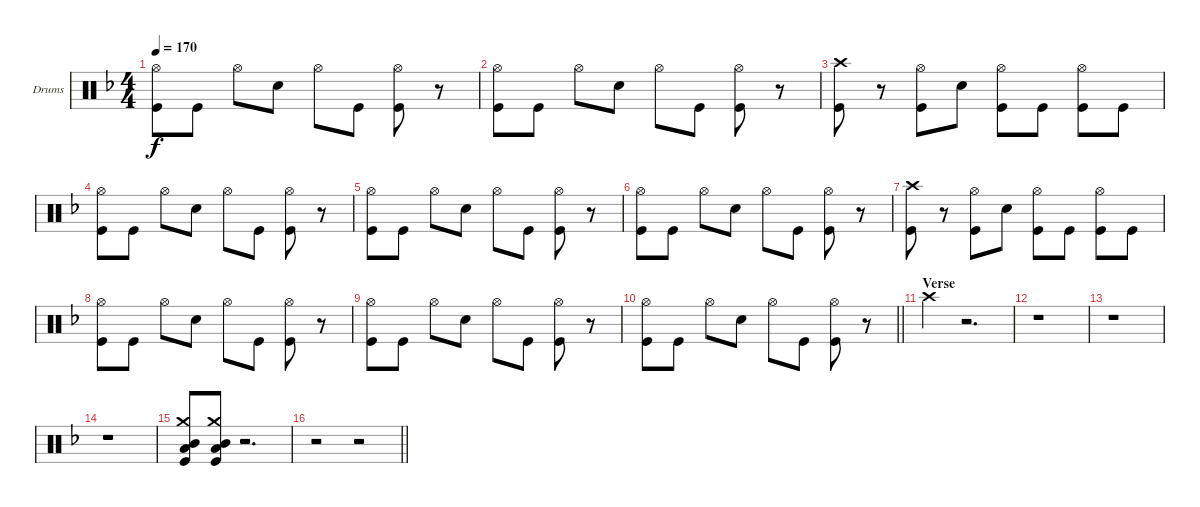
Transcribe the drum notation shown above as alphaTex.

\bracketExtendMode groupsimilarinstruments
\firstSystemTrackNameOrientation horizontal
\otherSystemsTrackNameOrientation horizontal
\track ("Drumkit" "Drums") {instrument percussion}
\staff {score}
\articulation defaults
\ts (4 4)
\tempo 170
\clef neutral
\scale
0.333333
\ks dminor
("Hi-Hat (open)" "Kick (hit)").8{dy f} "Kick (hit)".8 "Hi-Hat (open)".8 "Snare (hit) 2".8 "Hi-Hat (open)".8 "Kick (hit)".8 ("Hi-Hat (open)" "Kick (hit)").8 r.8 |
\scale
0.333333 ("Hi-Hat (open)" "Kick (hit)").8 "Kick (hit)".8 "Hi-Hat (open)".8 "Snare (hit) 2".8 "Hi-Hat (open)".8 "Kick (hit)".8 ("Hi-Hat (open)" "Kick (hit)").8 r.8 |
\scale
0.333333 ("Crash high (hit)" "Kick (hit)").8 r.8 ("Hi-Hat (open)" "Kick (hit)").8 "Snare (hit) 2".8 ("Hi-Hat (open)" "Kick (hit)").8 "Kick (hit)".8 ("Hi-Hat (open)" "Kick (hit)").8 "Kick (hit)".8 |
\scale
0.333333 ("Hi-Hat (open)" "Kick (hit)").8 "Kick (hit)".8 "Hi-Hat (open)".8 "Snare (hit) 2".8 "Hi-Hat (open)".8 "Kick (hit)".8 ("Hi-Hat (open)" "Kick (hit)").8 r.8 |
\scale
0.333333 ("Hi-Hat (open)" "Kick (hit)").8 "Kick (hit)".8 "Hi-Hat (open)".8 "Snare (hit) 2".8 "Hi-Hat (open)".8 "Kick (hit)".8 ("Hi-Hat (open)" "Kick (hit)").8 r.8 |
\scale
0.333333 ("Hi-Hat (open)" "Kick (hit)").8 "Kick (hit)".8 "Hi-Hat (open)".8 "Snare (hit) 2".8 "Hi-Hat (open)".8 "Kick (hit)".8 ("Hi-Hat (open)" "Kick (hit)").8 r.8 |
\scale
0.333333 ("Crash high (hit)" "Kick (hit)").8 r.8 ("Hi-Hat (open)" "Kick (hit)").8 "Snare (hit) 2".8 ("Hi-Hat (open)" "Kick (hit)").8 "Kick (hit)".8 ("Hi-Hat (open)" "Kick (hit)").8 "Kick (hit)".8 |
\scale
0.333333 ("Hi-Hat (open)" "Kick (hit)").8 "Kick (hit)".8 "Hi-Hat (open)".8 "Snare (hit) 2".8 "Hi-Hat (open)".8 "Kick (hit)".8 ("Hi-Hat (open)" "Kick (hit)").8 r.8 |
\scale
0.333333 ("Hi-Hat (open)" "Kick (hit)").8 "Kick (hit)".8 "Hi-Hat (open)".8 "Snare (hit) 2".8 "Hi-Hat (open)".8 "Kick (hit)".8 ("Hi-Hat (open)" "Kick (hit)").8 r.8 |
\scale
0.333333
\barLineRight lightlight
("Hi-Hat (open)" "Kick (hit)").8 "Kick (hit)".8 "Hi-Hat (open)".8 "Snare (hit) 2".8 "Hi-Hat (open)".8 "Kick (hit)".8 ("Hi-Hat (open)" "Kick (hit)").8 r.8 |
\section ("" "Verse")
\scale
0.434146 "Crash high (hit)".4 r.2{d} |
\scale
0.282927 r.1 |
\scale
0.282927 r.1 |
\scale
0.227451 r.1 |
\scale
0.411765 ("Crash medium (hit)" "Low Tom (hit)" "Mid Tom (hit)" "Kick (hit)").8 ("Crash medium (hit)" "Low Tom (hit)" "Mid Tom (hit)" "Kick (hit)").8 r.2{d} |
\scale
0.360784
\barLineRight lightlight
r.2 r.2
